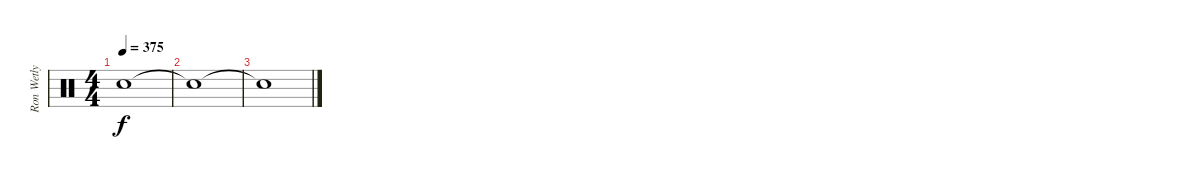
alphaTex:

\track ("Ron Wetly (Drums)" "Ron Wetly ") {instrument percussion}
\staff {score}
\articulation defaults
\ts (4 4)
\tempo 375
\clef neutral
\ks c "Snare (hit)"{t}.1{dy f}
|
"Snare (hit)"{t}.1 |
"Snare (hit)"{t}.1
